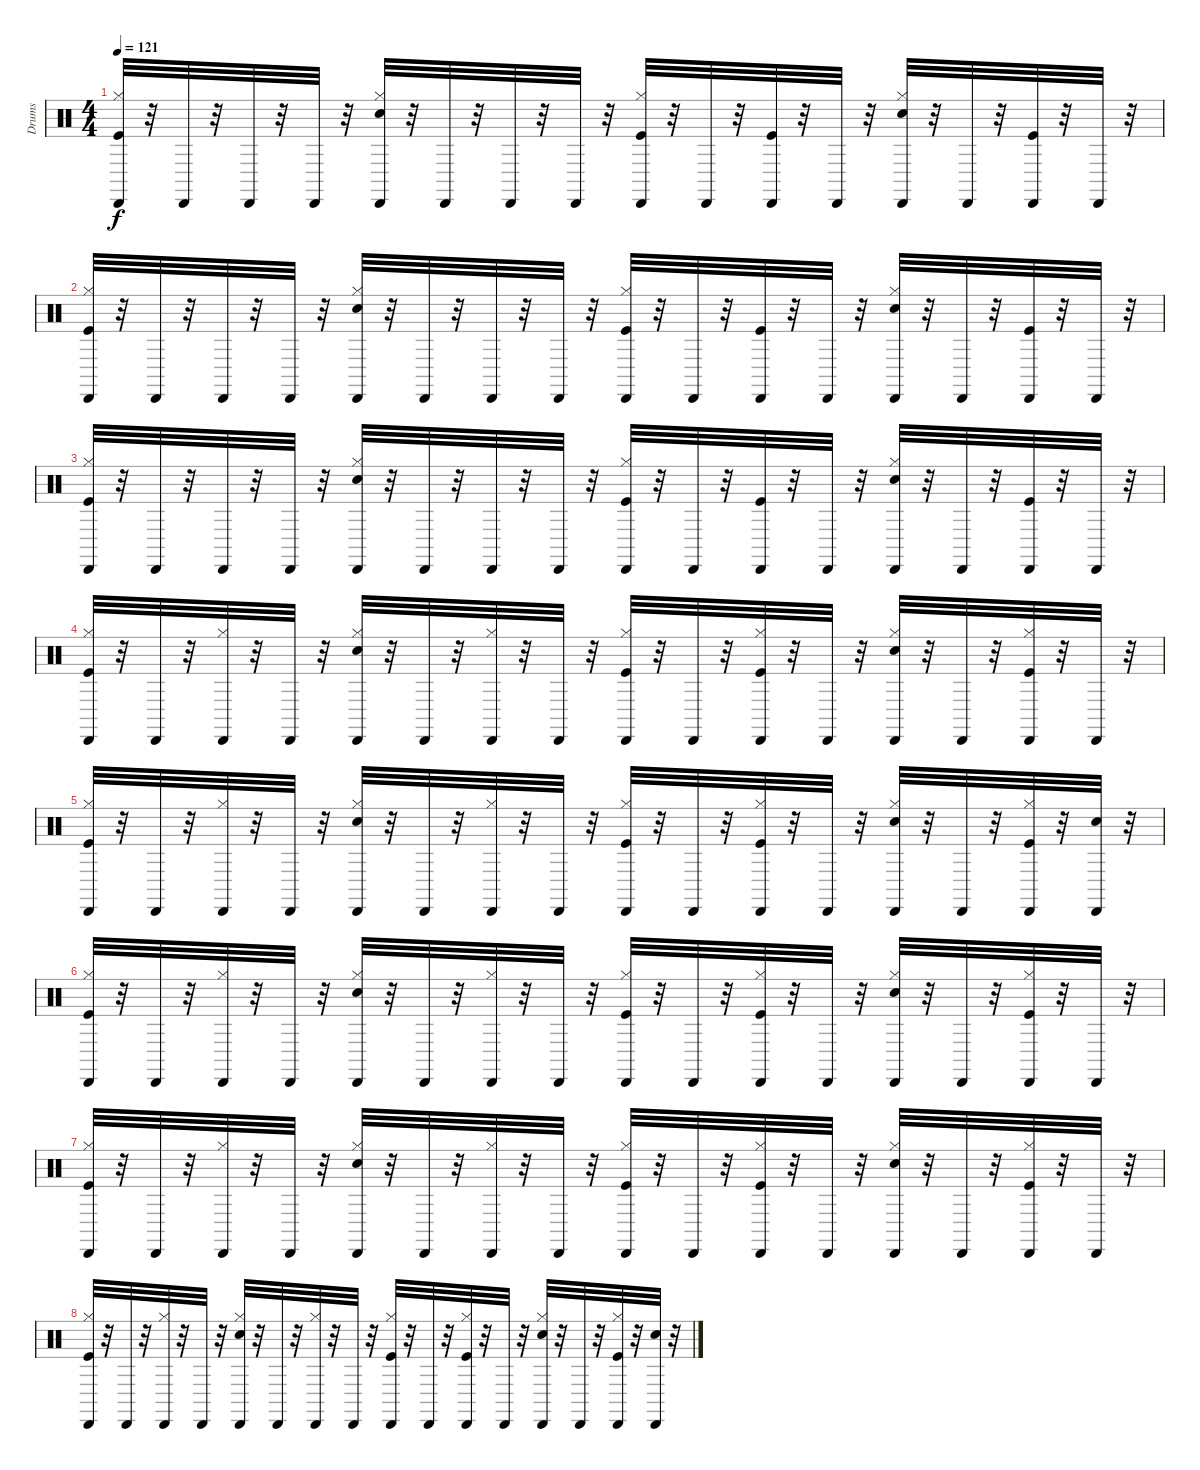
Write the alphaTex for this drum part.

\track ("Drums" "Drums") {instrument percussion}
\staff {score}
\articulation defaults
\ts (4 4)
\tempo 121
\clef neutral
\ks c
("Hi-Hat (closed)" "Cabasa (hit)" "Kick (hit)").32{dy f} r.32 "Cabasa (hit)".32 r.32 "Cabasa (hit)".32 r.32 "Cabasa (hit)".32 r.32 ("Hi-Hat (closed)" "Cabasa (hit)" "Snare (hit) 2").32 r.32 "Cabasa (hit)".32 r.32 "Cabasa (hit)".32 r.32 "Cabasa (hit)".32 r.32 ("Hi-Hat (closed)" "Kick (hit)" "Cabasa (hit)").32 r.32 "Cabasa (hit)".32 r.32 ("Kick (hit)" "Cabasa (hit)").32 r.32 "Cabasa (hit)".32 r.32 ("Hi-Hat (closed)" "Cabasa (hit)" "Snare (hit) 2").32 r.32 "Cabasa (hit)".32 r.32 ("Cabasa (hit)" "Kick (hit)").32 r.32 "Cabasa (hit)".32 r.32 |
("Hi-Hat (closed)" "Cabasa (hit)" "Kick (hit)").32 r.32 "Cabasa (hit)".32 r.32 "Cabasa (hit)".32 r.32 "Cabasa (hit)".32 r.32 ("Hi-Hat (closed)" "Cabasa (hit)" "Snare (hit) 2").32 r.32 "Cabasa (hit)".32 r.32 "Cabasa (hit)".32 r.32 "Cabasa (hit)".32 r.32 ("Hi-Hat (closed)" "Kick (hit)" "Cabasa (hit)").32 r.32 "Cabasa (hit)".32 r.32 ("Kick (hit)" "Cabasa (hit)").32 r.32 "Cabasa (hit)".32 r.32 ("Hi-Hat (closed)" "Snare (hit) 2" "Cabasa (hit)").32 r.32 "Cabasa (hit)".32 r.32 ("Cabasa (hit)" "Kick (hit)").32 r.32 "Cabasa (hit)".32 r.32 |
("Hi-Hat (closed)" "Cabasa (hit)" "Kick (hit)").32 r.32 "Cabasa (hit)".32 r.32 "Cabasa (hit)".32 r.32 "Cabasa (hit)".32 r.32 ("Hi-Hat (closed)" "Snare (hit) 2" "Cabasa (hit)").32 r.32 "Cabasa (hit)".32 r.32 "Cabasa (hit)".32 r.32 "Cabasa (hit)".32 r.32 ("Hi-Hat (closed)" "Cabasa (hit)" "Kick (hit)").32 r.32 "Cabasa (hit)".32 r.32 ("Cabasa (hit)" "Kick (hit)").32 r.32 "Cabasa (hit)".32 r.32 ("Hi-Hat (closed)" "Snare (hit) 2" "Cabasa (hit)").32 r.32 "Cabasa (hit)".32 r.32 ("Cabasa (hit)" "Kick (hit)").32 r.32 "Cabasa (hit)".32 r.32 |
("Hi-Hat (closed)" "Kick (hit)" "Cabasa (hit)").32 r.32 "Cabasa (hit)".32 r.32 ("Hi-Hat (closed)" "Cabasa (hit)").32 r.32 "Cabasa (hit)".32 r.32 ("Hi-Hat (closed)" "Cabasa (hit)" "Snare (hit) 2").32 r.32 "Cabasa (hit)".32 r.32 ("Hi-Hat (closed)" "Cabasa (hit)").32 r.32 "Cabasa (hit)".32 r.32 ("Hi-Hat (closed)" "Cabasa (hit)" "Kick (hit)").32 r.32 "Cabasa (hit)".32 r.32 ("Hi-Hat (closed)" "Cabasa (hit)" "Kick (hit)").32 r.32 "Cabasa (hit)".32 r.32 ("Hi-Hat (closed)" "Snare (hit) 2" "Cabasa (hit)").32 r.32 "Cabasa (hit)".32 r.32 ("Hi-Hat (closed)" "Cabasa (hit)" "Kick (hit)").32 r.32 "Cabasa (hit)".32 r.32 |
("Hi-Hat (closed)" "Cabasa (hit)" "Kick (hit)").32 r.32 "Cabasa (hit)".32 r.32 ("Hi-Hat (closed)" "Cabasa (hit)").32 r.32 "Cabasa (hit)".32 r.32 ("Hi-Hat (closed)" "Cabasa (hit)" "Snare (hit) 2").32 r.32 "Cabasa (hit)".32 r.32 ("Hi-Hat (closed)" "Cabasa (hit)").32 r.32 "Cabasa (hit)".32 r.32 ("Hi-Hat (closed)" "Cabasa (hit)" "Kick (hit)").32 r.32 "Cabasa (hit)".32 r.32 ("Hi-Hat (closed)" "Cabasa (hit)" "Kick (hit)").32 r.32 "Cabasa (hit)".32 r.32 ("Hi-Hat (closed)" "Cabasa (hit)" "Snare (hit) 2").32 r.32 "Cabasa (hit)".32 r.32 ("Hi-Hat (closed)" "Kick (hit)" "Cabasa (hit)").32 r.32 ("Snare (hit) 2" "Cabasa (hit)").32 r.32 |
("Hi-Hat (closed)" "Cabasa (hit)" "Kick (hit)").32 r.32 "Cabasa (hit)".32 r.32 ("Hi-Hat (closed)" "Cabasa (hit)").32 r.32 "Cabasa (hit)".32 r.32 ("Hi-Hat (closed)" "Cabasa (hit)" "Snare (hit) 2").32 r.32 "Cabasa (hit)".32 r.32 ("Hi-Hat (closed)" "Cabasa (hit)").32 r.32 "Cabasa (hit)".32 r.32 ("Hi-Hat (closed)" "Cabasa (hit)" "Kick (hit)").32 r.32 "Cabasa (hit)".32 r.32 ("Hi-Hat (closed)" "Kick (hit)" "Cabasa (hit)").32 r.32 "Cabasa (hit)".32 r.32 ("Hi-Hat (closed)" "Snare (hit) 2" "Cabasa (hit)").32 r.32 "Cabasa (hit)".32 r.32 ("Hi-Hat (closed)" "Kick (hit)" "Cabasa (hit)").32 r.32 "Cabasa (hit)".32 r.32 |
("Hi-Hat (closed)" "Cabasa (hit)" "Kick (hit)").32 r.32 "Cabasa (hit)".32 r.32 ("Hi-Hat (closed)" "Cabasa (hit)").32 r.32 "Cabasa (hit)".32 r.32 ("Hi-Hat (closed)" "Cabasa (hit)" "Snare (hit) 2").32 r.32 "Cabasa (hit)".32 r.32 ("Hi-Hat (closed)" "Cabasa (hit)").32 r.32 "Cabasa (hit)".32 r.32 ("Hi-Hat (closed)" "Cabasa (hit)" "Kick (hit)").32 r.32 "Cabasa (hit)".32 r.32 ("Hi-Hat (closed)" "Cabasa (hit)" "Kick (hit)").32 r.32 "Cabasa (hit)".32 r.32 ("Hi-Hat (closed)" "Snare (hit) 2" "Cabasa (hit)").32 r.32 "Cabasa (hit)".32 r.32 ("Hi-Hat (closed)" "Kick (hit)" "Cabasa (hit)").32 r.32 "Cabasa (hit)".32 r.32 |
("Hi-Hat (closed)" "Kick (hit)" "Cabasa (hit)").32 r.32 "Cabasa (hit)".32 r.32 ("Hi-Hat (closed)" "Cabasa (hit)").32 r.32 "Cabasa (hit)".32 r.32 ("Hi-Hat (closed)" "Cabasa (hit)" "Snare (hit) 2").32 r.32 "Cabasa (hit)".32 r.32 ("Hi-Hat (closed)" "Cabasa (hit)").32 r.32 "Cabasa (hit)".32 r.32 ("Hi-Hat (closed)" "Kick (hit)" "Cabasa (hit)").32 r.32 "Cabasa (hit)".32 r.32 ("Hi-Hat (closed)" "Cabasa (hit)" "Kick (hit)").32 r.32 "Cabasa (hit)".32 r.32 ("Hi-Hat (closed)" "Cabasa (hit)" "Snare (hit) 2").32 r.32 "Cabasa (hit)".32 r.32 ("Hi-Hat (closed)" "Kick (hit)" "Cabasa (hit)").32 r.32 ("Snare (hit) 2" "Cabasa (hit)").32 r.32
